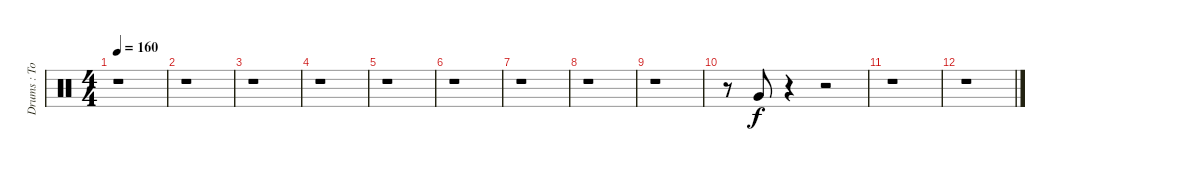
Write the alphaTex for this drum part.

\track ("Drums : Tom" "Drums : To") {instrument percussion}
\staff {score}
\articulation defaults
\ts (4 4)
\tempo 160
\clef neutral
\ks c
r.1{dy f} |
r.1 |
r.1 |
r.1 |
r.1 |
r.1 |
r.1 |
r.1 |
r.1 |
r.8 "Very Low Tom (hit)".8 r.4 r.2 |
r.1 |
r.1
